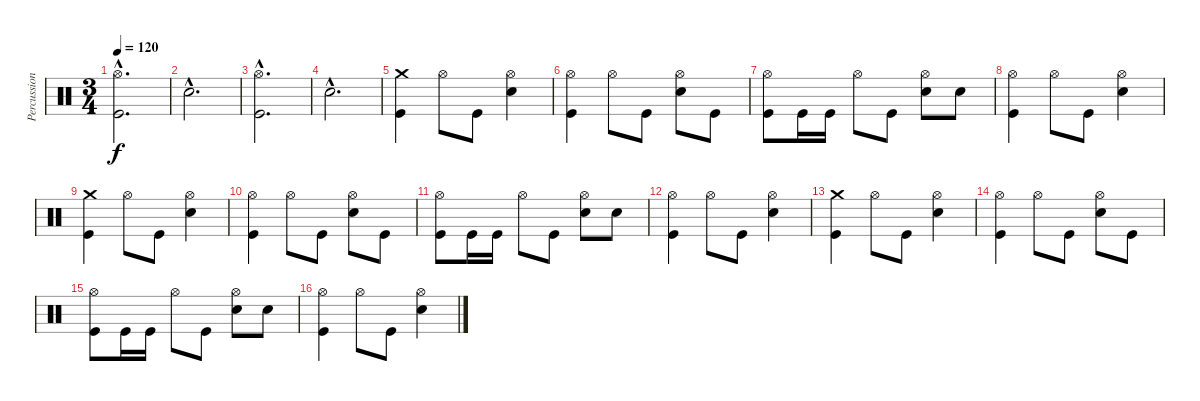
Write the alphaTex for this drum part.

\track ("Percussion" "Percussion") {instrument percussion}
\staff {score}
\articulation defaults
\ts (3 4)
\tempo 120
\clef neutral
\ks c
("Hi-Hat (open)"{hac} "Kick (hit)"{hac}).2{d dy f} |
"Snare (hit) 2"{hac}.2{d} |
("Hi-Hat (open)"{hac} "Kick (hit)"{hac}).2{d} |
"Snare (hit) 2"{hac}.2{d} |
("Crash medium (hit)" "Kick (hit)").4 "Hi-Hat (open)".8 "Kick (hit)".8 ("Hi-Hat (open)" "Snare (hit) 2").4 |
("Hi-Hat (open)" "Kick (hit)").4 "Hi-Hat (open)".8 "Kick (hit)".8 ("Hi-Hat (open)" "Snare (hit) 2").8 "Kick (hit)".8 |
("Hi-Hat (open)" "Kick (hit)").8 "Kick (hit)".16 "Kick (hit)".16 "Hi-Hat (open)".8 "Kick (hit)".8 ("Hi-Hat (open)" "Snare (hit) 2").8 "Snare (hit) 2".8 |
("Hi-Hat (open)" "Kick (hit)").4 "Hi-Hat (open)".8 "Kick (hit)".8 ("Hi-Hat (open)" "Snare (hit) 2").4 |
("Crash medium (hit)" "Kick (hit)").4 "Hi-Hat (open)".8 "Kick (hit)".8 ("Hi-Hat (open)" "Snare (hit) 2").4 |
("Hi-Hat (open)" "Kick (hit)").4 "Hi-Hat (open)".8 "Kick (hit)".8 ("Hi-Hat (open)" "Snare (hit) 2").8 "Kick (hit)".8 |
("Hi-Hat (open)" "Kick (hit)").8 "Kick (hit)".16 "Kick (hit)".16 "Hi-Hat (open)".8 "Kick (hit)".8 ("Hi-Hat (open)" "Snare (hit) 2").8 "Snare (hit) 2".8 |
("Hi-Hat (open)" "Kick (hit)").4 "Hi-Hat (open)".8 "Kick (hit)".8 ("Hi-Hat (open)" "Snare (hit) 2").4 |
("Crash medium (hit)" "Kick (hit)").4 "Hi-Hat (open)".8 "Kick (hit)".8 ("Hi-Hat (open)" "Snare (hit) 2").4 |
("Hi-Hat (open)" "Kick (hit)").4 "Hi-Hat (open)".8 "Kick (hit)".8 ("Hi-Hat (open)" "Snare (hit) 2").8 "Kick (hit)".8 |
("Hi-Hat (open)" "Kick (hit)").8 "Kick (hit)".16 "Kick (hit)".16 "Hi-Hat (open)".8 "Kick (hit)".8 ("Hi-Hat (open)" "Snare (hit) 2").8 "Snare (hit) 2".8 |
("Hi-Hat (open)" "Kick (hit)").4 "Hi-Hat (open)".8 "Kick (hit)".8 ("Hi-Hat (open)" "Snare (hit) 2").4
